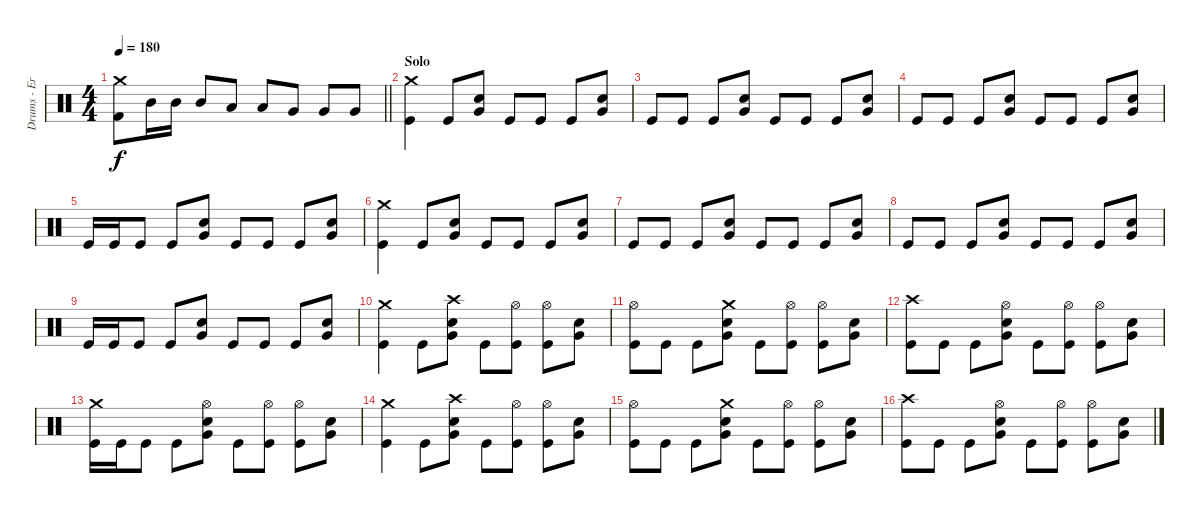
\track ("Drums - Eric Young" "Drums - Er") {instrument percussion}
\staff {score}
\articulation defaults
\ts (4 4)
\tempo 180
\clef neutral
\barLineRight lightlight
\ks c
("Crash medium (hit)" "Kick (hit) 2").8{dy f} "Mid Tom (hit)".16 "Mid Tom (hit)".16 "Mid Tom (hit)".8 "Low Tom (hit)".8 "Low Tom (hit)".8 "Very Low Tom (hit)".8 "Very Low Tom (hit)".8 "Very Low Tom (hit)".8 |
\section ("" "Solo")
("Crash medium (hit)" "Kick (hit)").4 "Kick (hit)".8 ("Snare (hit) 2" "Very Low Tom (hit)").8 "Kick (hit)".8 "Kick (hit)".8 "Kick (hit)".8 ("Snare (hit) 2" "Very Low Tom (hit)").8 |
"Kick (hit)".8 "Kick (hit)".8 "Kick (hit)".8 ("Snare (hit) 2" "Very Low Tom (hit)").8 "Kick (hit)".8 "Kick (hit)".8 "Kick (hit)".8 ("Snare (hit) 2" "Very Low Tom (hit)").8 |
"Kick (hit)".8 "Kick (hit)".8 "Kick (hit)".8 ("Snare (hit) 2" "Very Low Tom (hit)").8 "Kick (hit)".8 "Kick (hit)".8 "Kick (hit)".8 ("Snare (hit) 2" "Very Low Tom (hit)").8 |
"Kick (hit)".16 "Kick (hit)".16 "Kick (hit)".8 "Kick (hit)".8 ("Snare (hit) 2" "Very Low Tom (hit)").8 "Kick (hit)".8 "Kick (hit)".8 "Kick (hit)".8 ("Snare (hit) 2" "Very Low Tom (hit)").8 |
("Crash medium (hit)" "Kick (hit)").4 "Kick (hit)".8 ("Snare (hit) 2" "Very Low Tom (hit)").8 "Kick (hit)".8 "Kick (hit)".8 "Kick (hit)".8 ("Snare (hit) 2" "Very Low Tom (hit)").8 |
"Kick (hit)".8 "Kick (hit)".8 "Kick (hit)".8 ("Snare (hit) 2" "Very Low Tom (hit)").8 "Kick (hit)".8 "Kick (hit)".8 "Kick (hit)".8 ("Snare (hit) 2" "Very Low Tom (hit)").8 |
"Kick (hit)".8 "Kick (hit)".8 "Kick (hit)".8 ("Snare (hit) 2" "Very Low Tom (hit)").8 "Kick (hit)".8 "Kick (hit)".8 "Kick (hit)".8 ("Snare (hit) 2" "Very Low Tom (hit)").8 |
"Kick (hit)".16 "Kick (hit)".16 "Kick (hit)".8 "Kick (hit)".8 ("Snare (hit) 2" "Very Low Tom (hit)").8 "Kick (hit)".8 "Kick (hit)".8 "Kick (hit)".8 ("Snare (hit) 2" "Very Low Tom (hit)").8 |
("Crash medium (hit)" "Kick (hit)").4 "Kick (hit)".8 ("Crash high (hit)" "Snare (hit) 2" "Very Low Tom (hit)").8 "Kick (hit)".8 ("Hi-Hat (open)" "Kick (hit)").8 ("Hi-Hat (open)" "Kick (hit)").8 ("Snare (hit) 2" "Very Low Tom (hit)").8 |
("Hi-Hat (open)" "Kick (hit)").8 "Kick (hit)".8 "Kick (hit)".8 ("Crash medium (hit)" "Snare (hit) 2" "Very Low Tom (hit)").8 "Kick (hit)".8 ("Hi-Hat (open)" "Kick (hit)").8 ("Hi-Hat (open)" "Kick (hit)").8 ("Snare (hit) 2" "Very Low Tom (hit)").8 |
("Crash high (hit)" "Kick (hit)").8 "Kick (hit)".8 "Kick (hit)".8 ("Hi-Hat (open)" "Snare (hit) 2" "Very Low Tom (hit)").8 "Kick (hit)".8 ("Hi-Hat (open)" "Kick (hit)").8 ("Hi-Hat (open)" "Kick (hit)").8 ("Snare (hit) 2" "Very Low Tom (hit)").8 |
("Crash medium (hit)" "Kick (hit)").16 "Kick (hit)".16 "Kick (hit)".8 "Kick (hit)".8 ("Hi-Hat (open)" "Snare (hit) 2" "Very Low Tom (hit)").8 "Kick (hit)".8 ("Hi-Hat (open)" "Kick (hit)").8 ("Hi-Hat (open)" "Kick (hit)").8 ("Snare (hit) 2" "Very Low Tom (hit)").8 |
("Crash medium (hit)" "Kick (hit)").4 "Kick (hit)".8 ("Crash high (hit)" "Snare (hit) 2" "Very Low Tom (hit)").8 "Kick (hit)".8 ("Hi-Hat (open)" "Kick (hit)").8 ("Hi-Hat (open)" "Kick (hit)").8 ("Snare (hit) 2" "Very Low Tom (hit)").8 |
("Hi-Hat (open)" "Kick (hit)").8 "Kick (hit)".8 "Kick (hit)".8 ("Crash medium (hit)" "Snare (hit) 2" "Very Low Tom (hit)").8 "Kick (hit)".8 ("Hi-Hat (open)" "Kick (hit)").8 ("Hi-Hat (open)" "Kick (hit)").8 ("Snare (hit) 2" "Very Low Tom (hit)").8 |
("Crash high (hit)" "Kick (hit)").8 "Kick (hit)".8 "Kick (hit)".8 ("Hi-Hat (open)" "Snare (hit) 2" "Very Low Tom (hit)").8 "Kick (hit)".8 ("Hi-Hat (open)" "Kick (hit)").8 ("Hi-Hat (open)" "Kick (hit)").8 ("Snare (hit) 2" "Very Low Tom (hit)").8
